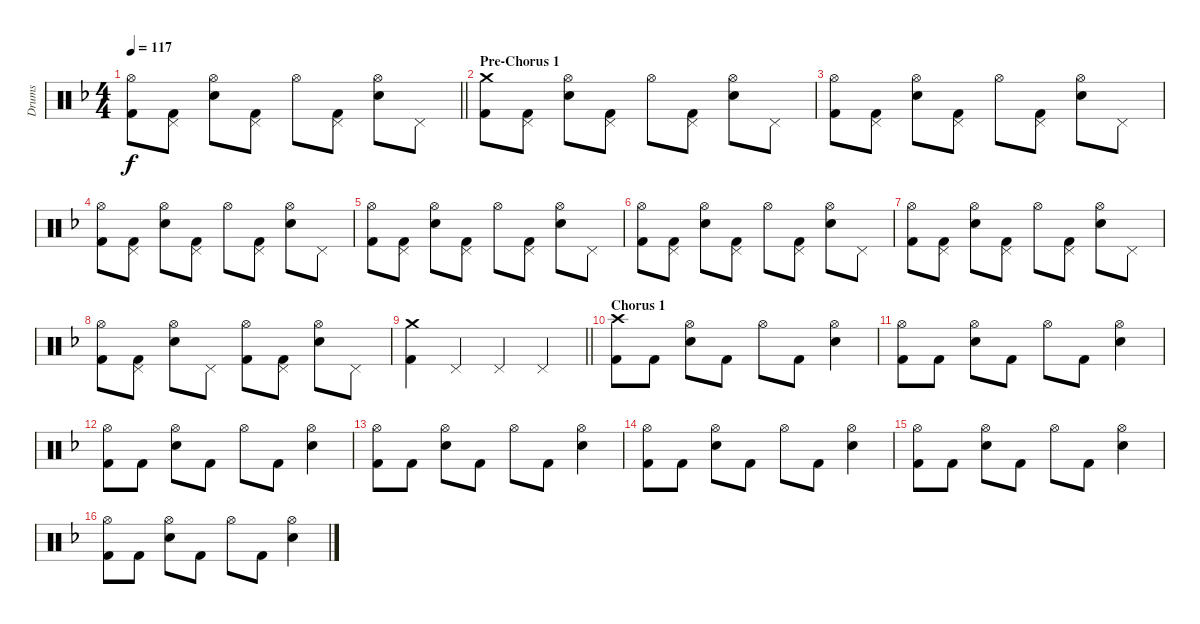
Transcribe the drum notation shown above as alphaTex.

\track ("Drums" "Drums") {instrument percussion}
\staff {score}
\articulation defaults
\ts (4 4)
\tempo 117
\clef neutral
\barLineRight lightlight
\ks dminor
("Hi-Hat (open)" "Kick (hit) 2").8{dy f} ("Pedal Hi-Hat (hit)" "Kick (hit) 2").8 ("Hi-Hat (open)" "Snare (hit) 2").8 ("Pedal Hi-Hat (hit)" "Kick (hit) 2").8 "Hi-Hat (open)".8 ("Pedal Hi-Hat (hit)" "Kick (hit) 2").8 ("Hi-Hat (open)" "Snare (hit) 2").8 "Pedal Hi-Hat (hit)".8 |
\section ("" "Pre-Chorus 1")
("Kick (hit) 2" "Crash medium (hit)").8 ("Pedal Hi-Hat (hit)" "Kick (hit) 2").8 ("Hi-Hat (open)" "Snare (hit) 2").8 ("Pedal Hi-Hat (hit)" "Kick (hit) 2").8 "Hi-Hat (open)".8 ("Pedal Hi-Hat (hit)" "Kick (hit) 2").8 ("Hi-Hat (open)" "Snare (hit) 2").8 "Pedal Hi-Hat (hit)".8 |
("Hi-Hat (open)" "Kick (hit) 2").8 ("Pedal Hi-Hat (hit)" "Kick (hit) 2").8 ("Hi-Hat (open)" "Snare (hit) 2").8 ("Pedal Hi-Hat (hit)" "Kick (hit) 2").8 "Hi-Hat (open)".8 ("Pedal Hi-Hat (hit)" "Kick (hit) 2").8 ("Hi-Hat (open)" "Snare (hit) 2").8 "Pedal Hi-Hat (hit)".8 |
("Hi-Hat (open)" "Kick (hit) 2").8 ("Pedal Hi-Hat (hit)" "Kick (hit) 2").8 ("Hi-Hat (open)" "Snare (hit) 2").8 ("Pedal Hi-Hat (hit)" "Kick (hit) 2").8 "Hi-Hat (open)".8 ("Pedal Hi-Hat (hit)" "Kick (hit) 2").8 ("Hi-Hat (open)" "Snare (hit) 2").8 "Pedal Hi-Hat (hit)".8 |
("Hi-Hat (open)" "Kick (hit) 2").8 ("Pedal Hi-Hat (hit)" "Kick (hit) 2").8 ("Hi-Hat (open)" "Snare (hit) 2").8 ("Pedal Hi-Hat (hit)" "Kick (hit) 2").8 "Hi-Hat (open)".8 ("Pedal Hi-Hat (hit)" "Kick (hit) 2").8 ("Hi-Hat (open)" "Snare (hit) 2").8 "Pedal Hi-Hat (hit)".8 |
("Hi-Hat (open)" "Kick (hit) 2").8 ("Pedal Hi-Hat (hit)" "Kick (hit) 2").8 ("Hi-Hat (open)" "Snare (hit) 2").8 ("Pedal Hi-Hat (hit)" "Kick (hit) 2").8 "Hi-Hat (open)".8 ("Pedal Hi-Hat (hit)" "Kick (hit) 2").8 ("Hi-Hat (open)" "Snare (hit) 2").8 "Pedal Hi-Hat (hit)".8 |
("Hi-Hat (open)" "Kick (hit) 2").8 ("Pedal Hi-Hat (hit)" "Kick (hit) 2").8 ("Hi-Hat (open)" "Snare (hit) 2").8 ("Pedal Hi-Hat (hit)" "Kick (hit) 2").8 "Hi-Hat (open)".8 ("Pedal Hi-Hat (hit)" "Kick (hit) 2").8 ("Hi-Hat (open)" "Snare (hit) 2").8 "Pedal Hi-Hat (hit)".8 |
("Hi-Hat (open)" "Kick (hit) 2").8 ("Pedal Hi-Hat (hit)" "Kick (hit) 2").8 ("Hi-Hat (open)" "Snare (hit) 2").8 "Pedal Hi-Hat (hit)".8 ("Hi-Hat (open)" "Kick (hit) 2").8 ("Pedal Hi-Hat (hit)" "Kick (hit) 2").8 ("Hi-Hat (open)" "Snare (hit) 2").8 "Pedal Hi-Hat (hit)".8 |
\barLineRight lightlight
("Kick (hit) 2" "Crash medium (hit)").4 "Pedal Hi-Hat (hit)".4 "Pedal Hi-Hat (hit)".4 "Pedal Hi-Hat (hit)".4 |
\section ("" "Chorus 1")
("Kick (hit) 2" "Crash high (hit)").8 "Kick (hit) 2".8 ("Hi-Hat (open)" "Snare (hit) 2").8 "Kick (hit) 2".8 "Hi-Hat (open)".8 "Kick (hit) 2".8 ("Hi-Hat (open)" "Snare (hit) 2").4 |
("Hi-Hat (open)" "Kick (hit) 2").8 "Kick (hit) 2".8 ("Hi-Hat (open)" "Snare (hit) 2").8 "Kick (hit) 2".8 "Hi-Hat (open)".8 "Kick (hit) 2".8 ("Hi-Hat (open)" "Snare (hit) 2").4 |
("Hi-Hat (open)" "Kick (hit) 2").8 "Kick (hit) 2".8 ("Hi-Hat (open)" "Snare (hit) 2").8 "Kick (hit) 2".8 "Hi-Hat (open)".8 "Kick (hit) 2".8 ("Hi-Hat (open)" "Snare (hit) 2").4 |
("Hi-Hat (open)" "Kick (hit) 2").8 "Kick (hit) 2".8 ("Hi-Hat (open)" "Snare (hit) 2").8 "Kick (hit) 2".8 "Hi-Hat (open)".8 "Kick (hit) 2".8 ("Hi-Hat (open)" "Snare (hit) 2").4 |
("Hi-Hat (open)" "Kick (hit) 2").8 "Kick (hit) 2".8 ("Hi-Hat (open)" "Snare (hit) 2").8 "Kick (hit) 2".8 "Hi-Hat (open)".8 "Kick (hit) 2".8 ("Hi-Hat (open)" "Snare (hit) 2").4 |
("Hi-Hat (open)" "Kick (hit) 2").8 "Kick (hit) 2".8 ("Hi-Hat (open)" "Snare (hit) 2").8 "Kick (hit) 2".8 "Hi-Hat (open)".8 "Kick (hit) 2".8 ("Hi-Hat (open)" "Snare (hit) 2").4 |
("Hi-Hat (open)" "Kick (hit) 2").8 "Kick (hit) 2".8 ("Hi-Hat (open)" "Snare (hit) 2").8 "Kick (hit) 2".8 "Hi-Hat (open)".8 "Kick (hit) 2".8 ("Hi-Hat (open)" "Snare (hit) 2").4
